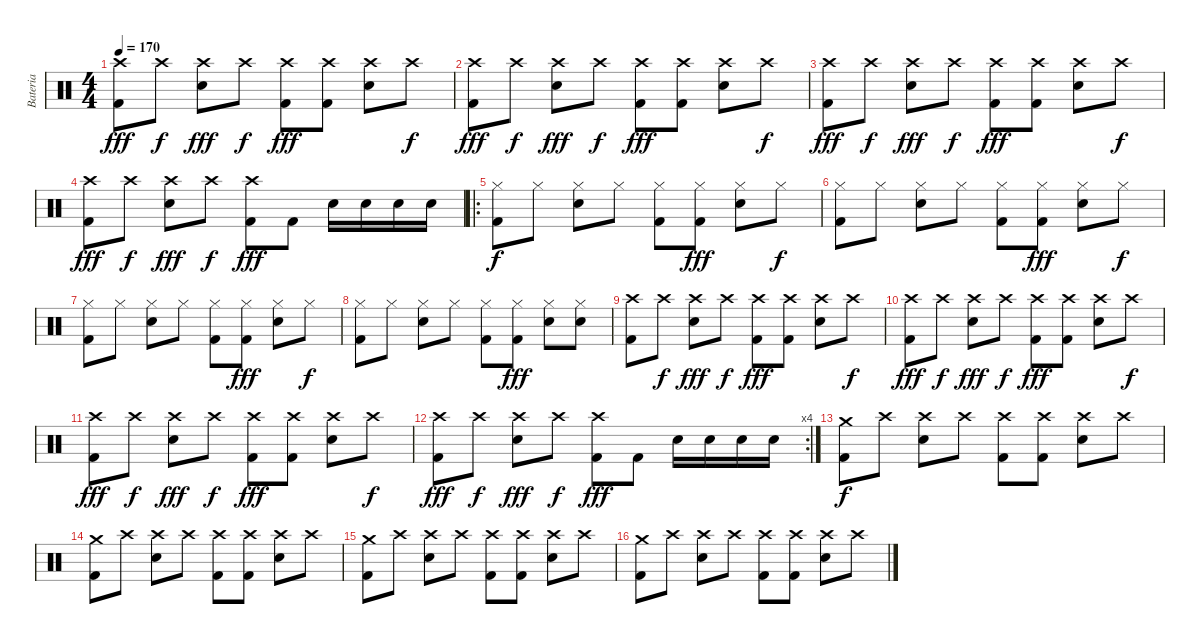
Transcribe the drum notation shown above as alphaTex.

\track ("Bateria" "Bateria") {instrument percussion}
\staff {score}
\articulation defaults
\ts (4 4)
\tempo 170
\clef neutral
\ks c
("Crash high (hit)" "Kick (hit) 2").8{dy fff} "Crash high (hit)".8{dy f} ("Crash high (hit)" "Electric Snare (hit)").8{dy fff} "Crash high (hit)".8{dy f} ("Crash high (hit)" "Kick (hit) 2").8{dy fff} ("Crash high (hit)" "Kick (hit) 2").8 ("Crash high (hit)" "Electric Snare (hit)").8 "Crash high (hit)".8{dy f} |
("Crash high (hit)" "Kick (hit) 2").8{dy fff} "Crash high (hit)".8{dy f} ("Crash high (hit)" "Electric Snare (hit)").8{dy fff} "Crash high (hit)".8{dy f} ("Crash high (hit)" "Kick (hit) 2").8{dy fff} ("Crash high (hit)" "Kick (hit) 2").8 ("Crash high (hit)" "Electric Snare (hit)").8 "Crash high (hit)".8{dy f} |
("Crash high (hit)" "Kick (hit) 2").8{dy fff} "Crash high (hit)".8{dy f} ("Crash high (hit)" "Electric Snare (hit)").8{dy fff} "Crash high (hit)".8{dy f} ("Crash high (hit)" "Kick (hit) 2").8{dy fff} ("Crash high (hit)" "Kick (hit) 2").8 ("Crash high (hit)" "Electric Snare (hit)").8 "Crash high (hit)".8{dy f} |
("Crash high (hit)" "Kick (hit) 2").8{dy fff} "Crash high (hit)".8{dy f} ("Crash high (hit)" "Electric Snare (hit)").8{dy fff} "Crash high (hit)".8{dy f} ("Crash high (hit)" "Kick (hit) 2").8{dy fff} "Kick (hit) 2".8 "Electric Snare (hit)".16 "Electric Snare (hit)".16 "Electric Snare (hit)".16 "Electric Snare (hit)".16 |
\ro
("Hi-Hat (closed)" "Kick (hit) 2").8{dy f} "Hi-Hat (closed)".8 ("Hi-Hat (closed)" "Electric Snare (hit)").8 "Hi-Hat (closed)".8 ("Hi-Hat (closed)" "Kick (hit) 2").8 ("Hi-Hat (closed)" "Kick (hit) 2").8{dy fff} ("Hi-Hat (closed)" "Electric Snare (hit)").8 "Hi-Hat (closed)".8{dy f} |
("Hi-Hat (closed)" "Kick (hit) 2").8 "Hi-Hat (closed)".8 ("Hi-Hat (closed)" "Electric Snare (hit)").8 "Hi-Hat (closed)".8 ("Hi-Hat (closed)" "Kick (hit) 2").8 ("Hi-Hat (closed)" "Kick (hit) 2").8{dy fff} ("Hi-Hat (closed)" "Electric Snare (hit)").8 "Hi-Hat (closed)".8{dy f} |
("Hi-Hat (closed)" "Kick (hit) 2").8 "Hi-Hat (closed)".8 ("Hi-Hat (closed)" "Electric Snare (hit)").8 "Hi-Hat (closed)".8 ("Hi-Hat (closed)" "Kick (hit) 2").8 ("Hi-Hat (closed)" "Kick (hit) 2").8{dy fff} ("Hi-Hat (closed)" "Electric Snare (hit)").8 "Hi-Hat (closed)".8{dy f} |
("Hi-Hat (closed)" "Kick (hit) 2").8 "Hi-Hat (closed)".8 ("Hi-Hat (closed)" "Electric Snare (hit)").8 "Hi-Hat (closed)".8 ("Hi-Hat (closed)" "Kick (hit) 2").8 ("Hi-Hat (closed)" "Kick (hit) 2").8{dy fff} ("Hi-Hat (closed)" "Electric Snare (hit)").8 ("Hi-Hat (closed)" "Electric Snare (hit)").8 |
("Crash high (hit)" "Kick (hit) 2").8 "Crash high (hit)".8{dy f} ("Crash high (hit)" "Electric Snare (hit)").8{dy fff} "Crash high (hit)".8{dy f} ("Crash high (hit)" "Kick (hit) 2").8{dy fff} ("Crash high (hit)" "Kick (hit) 2").8 ("Crash high (hit)" "Electric Snare (hit)").8 "Crash high (hit)".8{dy f} |
("Crash high (hit)" "Kick (hit) 2").8{dy fff} "Crash high (hit)".8{dy f} ("Crash high (hit)" "Electric Snare (hit)").8{dy fff} "Crash high (hit)".8{dy f} ("Crash high (hit)" "Kick (hit) 2").8{dy fff} ("Crash high (hit)" "Kick (hit) 2").8 ("Crash high (hit)" "Electric Snare (hit)").8 "Crash high (hit)".8{dy f} |
("Crash high (hit)" "Kick (hit) 2").8{dy fff} "Crash high (hit)".8{dy f} ("Crash high (hit)" "Electric Snare (hit)").8{dy fff} "Crash high (hit)".8{dy f} ("Crash high (hit)" "Kick (hit) 2").8{dy fff} ("Crash high (hit)" "Kick (hit) 2").8 ("Crash high (hit)" "Electric Snare (hit)").8 "Crash high (hit)".8{dy f} |
\rc 4
("Crash high (hit)" "Kick (hit) 2").8{dy fff} "Crash high (hit)".8{dy f} ("Crash high (hit)" "Electric Snare (hit)").8{dy fff} "Crash high (hit)".8{dy f} ("Crash high (hit)" "Kick (hit) 2").8{dy fff} "Kick (hit) 2".8 "Electric Snare (hit)".16 "Electric Snare (hit)".16 "Electric Snare (hit)".16 "Electric Snare (hit)".16 |
("Crash medium (hit)" "Kick (hit) 2").8{dy f} "Crash high (hit)".8 ("Crash high (hit)" "Electric Snare (hit)").8 "Crash high (hit)".8 ("Crash high (hit)" "Kick (hit) 2").8 ("Crash high (hit)" "Kick (hit) 2").8 ("Crash high (hit)" "Electric Snare (hit)").8 "Crash high (hit)".8 |
("Crash medium (hit)" "Kick (hit) 2").8 "Crash high (hit)".8 ("Crash high (hit)" "Electric Snare (hit)").8 "Crash high (hit)".8 ("Crash high (hit)" "Kick (hit) 2").8 ("Crash high (hit)" "Kick (hit) 2").8 ("Crash high (hit)" "Electric Snare (hit)").8 "Crash high (hit)".8 |
("Crash medium (hit)" "Kick (hit) 2").8 "Crash high (hit)".8 ("Crash high (hit)" "Electric Snare (hit)").8 "Crash high (hit)".8 ("Crash high (hit)" "Kick (hit) 2").8 ("Crash high (hit)" "Kick (hit) 2").8 ("Crash high (hit)" "Electric Snare (hit)").8 "Crash high (hit)".8 |
("Crash medium (hit)" "Kick (hit) 2").8 "Crash high (hit)".8 ("Crash high (hit)" "Electric Snare (hit)").8 "Crash high (hit)".8 ("Crash high (hit)" "Kick (hit) 2").8 ("Crash high (hit)" "Kick (hit) 2").8 ("Crash high (hit)" "Electric Snare (hit)").8 "Crash high (hit)".8
